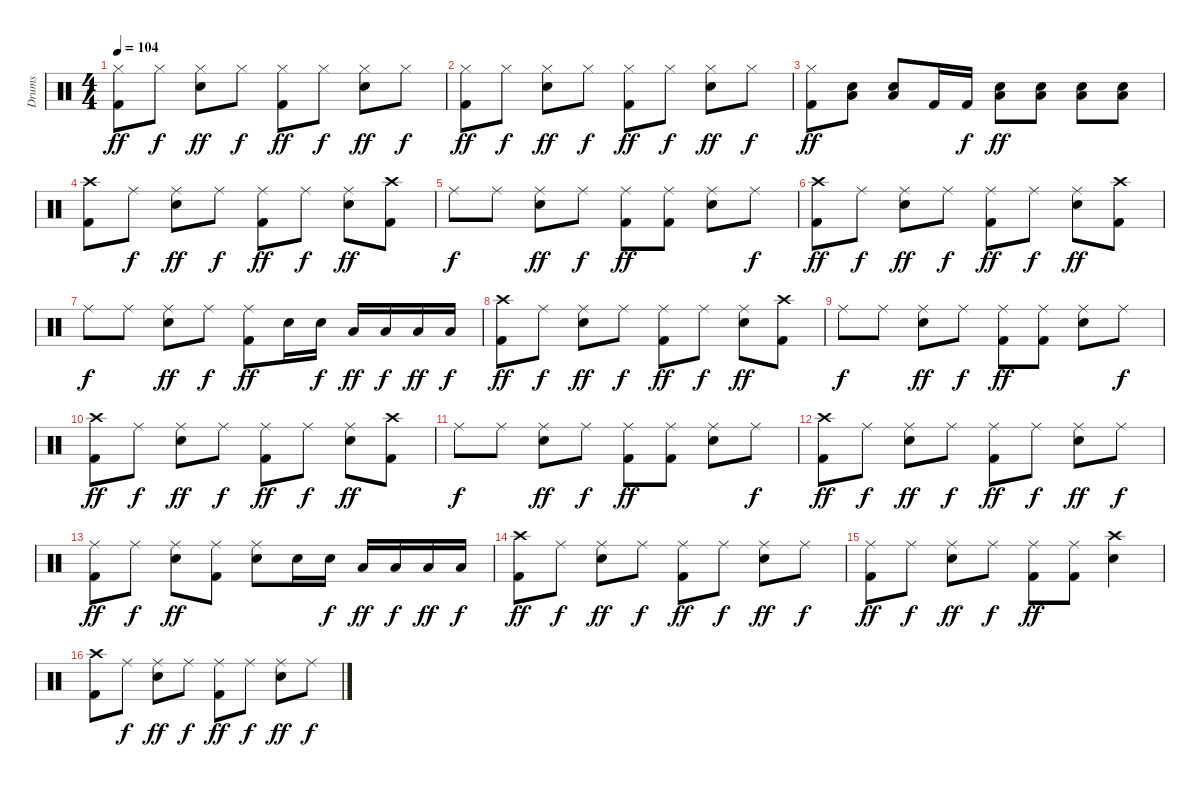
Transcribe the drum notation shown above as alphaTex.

\track ("Drums" "Drums") {instrument percussion}
\staff {score}
\articulation defaults
\ts (4 4)
\tempo 104
\clef neutral
\ks c
("Hi-Hat (closed)" "Kick (hit) 2").8{dy ff} "Hi-Hat (closed)".8{dy f} ("Hi-Hat (closed)" "Snare (hit) 2").8{dy ff} "Hi-Hat (closed)".8{dy f} ("Hi-Hat (closed)" "Kick (hit) 2").8{dy ff} "Hi-Hat (closed)".8{dy f} ("Hi-Hat (closed)" "Snare (hit) 2").8{dy ff} "Hi-Hat (closed)".8{dy f} |
("Hi-Hat (closed)" "Kick (hit) 2").8{dy ff} "Hi-Hat (closed)".8{dy f} ("Hi-Hat (closed)" "Snare (hit) 2").8{dy ff} "Hi-Hat (closed)".8{dy f} ("Hi-Hat (closed)" "Kick (hit) 2").8{dy ff} "Hi-Hat (closed)".8{dy f} ("Hi-Hat (closed)" "Snare (hit) 2").8{dy ff} "Hi-Hat (closed)".8{dy f} |
("Hi-Hat (closed)" "Kick (hit) 2").8{dy ff} ("Low Tom (hit)" "Snare (hit) 2").8 ("Low Tom (hit)" "Snare (hit) 2").8 "Kick (hit) 2".16 "Kick (hit) 2".16{dy f} ("Low Floor Tom (hit)" "Snare (hit) 2").8{dy ff} ("Low Floor Tom (hit)" "Snare (hit) 2").8 ("Low Floor Tom (hit)" "Snare (hit) 2").8 ("Low Floor Tom (hit)" "Snare (hit) 2").8 |
("Crash high (hit)" "Kick (hit) 2").8 "Ride (middle)".8{dy f} ("Ride (middle)" "Snare (hit) 2").8{dy ff} "Ride (middle)".8{dy f} ("Ride (middle)" "Kick (hit) 2").8{dy ff} "Ride (middle)".8{dy f} ("Ride (middle)" "Snare (hit) 2").8{dy ff} ("Crash high (hit)" "Kick (hit) 2").8 |
"Ride (middle)".8{dy f} "Ride (middle)".8 ("Ride (middle)" "Snare (hit) 2").8{dy ff} "Ride (middle)".8{dy f} ("Ride (middle)" "Kick (hit) 2").8{dy ff} ("Ride (middle)" "Kick (hit) 2").8 ("Ride (middle)" "Snare (hit) 2").8 "Ride (middle)".8{dy f} |
("Crash high (hit)" "Kick (hit) 2").8{dy ff} "Ride (middle)".8{dy f} ("Ride (middle)" "Snare (hit) 2").8{dy ff} "Ride (middle)".8{dy f} ("Ride (middle)" "Kick (hit) 2").8{dy ff} "Ride (middle)".8{dy f} ("Ride (middle)" "Snare (hit) 2").8{dy ff} ("Crash high (hit)" "Kick (hit) 2").8 |
"Ride (middle)".8{dy f} "Ride (middle)".8 ("Ride (middle)" "Snare (hit) 2").8{dy ff} "Ride (middle)".8{dy f} ("Ride (middle)" "Kick (hit) 2").8{dy ff} "Snare (hit) 2".16 "Snare (hit) 2".16{dy f} "Low Tom (hit)".16{dy ff} "Low Tom (hit)".16{dy f} "Low Floor Tom (hit)".16{dy ff} "Low Floor Tom (hit)".16{dy f} |
("Crash high (hit)" "Kick (hit) 2").8{dy ff} "Ride (middle)".8{dy f} ("Ride (middle)" "Snare (hit) 2").8{dy ff} "Ride (middle)".8{dy f} ("Ride (middle)" "Kick (hit) 2").8{dy ff} "Ride (middle)".8{dy f} ("Ride (middle)" "Snare (hit) 2").8{dy ff} ("Crash high (hit)" "Kick (hit) 2").8 |
"Ride (middle)".8{dy f} "Ride (middle)".8 ("Ride (middle)" "Snare (hit) 2").8{dy ff} "Ride (middle)".8{dy f} ("Ride (middle)" "Kick (hit) 2").8{dy ff} ("Ride (middle)" "Kick (hit) 2").8 ("Ride (middle)" "Snare (hit) 2").8 "Ride (middle)".8{dy f} |
("Crash high (hit)" "Kick (hit) 2").8{dy ff} "Ride (middle)".8{dy f} ("Ride (middle)" "Snare (hit) 2").8{dy ff} "Ride (middle)".8{dy f} ("Ride (middle)" "Kick (hit) 2").8{dy ff} "Ride (middle)".8{dy f} ("Ride (middle)" "Snare (hit) 2").8{dy ff} ("Crash high (hit)" "Kick (hit) 2").8 |
"Ride (middle)".8{dy f} "Ride (middle)".8 ("Ride (middle)" "Snare (hit) 2").8{dy ff} "Ride (middle)".8{dy f} ("Ride (middle)" "Kick (hit) 2").8{dy ff} ("Ride (middle)" "Kick (hit) 2").8 ("Ride (middle)" "Snare (hit) 2").8 "Ride (middle)".8{dy f} |
("Crash high (hit)" "Kick (hit) 2").8{dy ff} "Ride (middle)".8{dy f} ("Ride (middle)" "Snare (hit) 2").8{dy ff} "Ride (middle)".8{dy f} ("Ride (middle)" "Kick (hit) 2").8{dy ff} "Ride (middle)".8{dy f} ("Ride (middle)" "Snare (hit) 2").8{dy ff} "Ride (middle)".8{dy f} |
("Ride (middle)" "Kick (hit) 2").8{dy ff} "Ride (middle)".8{dy f} ("Ride (middle)" "Snare (hit) 2").8{dy ff} ("Ride (middle)" "Kick (hit) 2").8 ("Ride (middle)" "Snare (hit) 2").8 "Snare (hit) 2".16 "Snare (hit) 2".16{dy f} "Low Tom (hit)".16{dy ff} "Low Tom (hit)".16{dy f} "Low Floor Tom (hit)".16{dy ff} "Low Floor Tom (hit)".16{dy f} |
("Crash high (hit)" "Kick (hit) 2").8{dy ff} "Ride (middle)".8{dy f} ("Ride (middle)" "Snare (hit) 2").8{dy ff} "Ride (middle)".8{dy f} ("Ride (middle)" "Kick (hit) 2").8{dy ff} "Ride (middle)".8{dy f} ("Ride (middle)" "Snare (hit) 2").8{dy ff} "Ride (middle)".8{dy f} |
("Ride (middle)" "Kick (hit) 2").8{dy ff} "Ride (middle)".8{dy f} ("Ride (middle)" "Snare (hit) 2").8{dy ff} "Ride (middle)".8{dy f} ("Ride (middle)" "Kick (hit) 2").8{dy ff} ("Ride (middle)" "Kick (hit) 2").8 ("Crash high (hit)" "Snare (hit) 2").4 |
("Crash high (hit)" "Kick (hit) 2").8 "Ride (middle)".8{dy f} ("Ride (middle)" "Snare (hit) 2").8{dy ff} "Ride (middle)".8{dy f} ("Ride (middle)" "Kick (hit) 2").8{dy ff} "Ride (middle)".8{dy f} ("Ride (middle)" "Snare (hit) 2").8{dy ff} "Ride (middle)".8{dy f}
